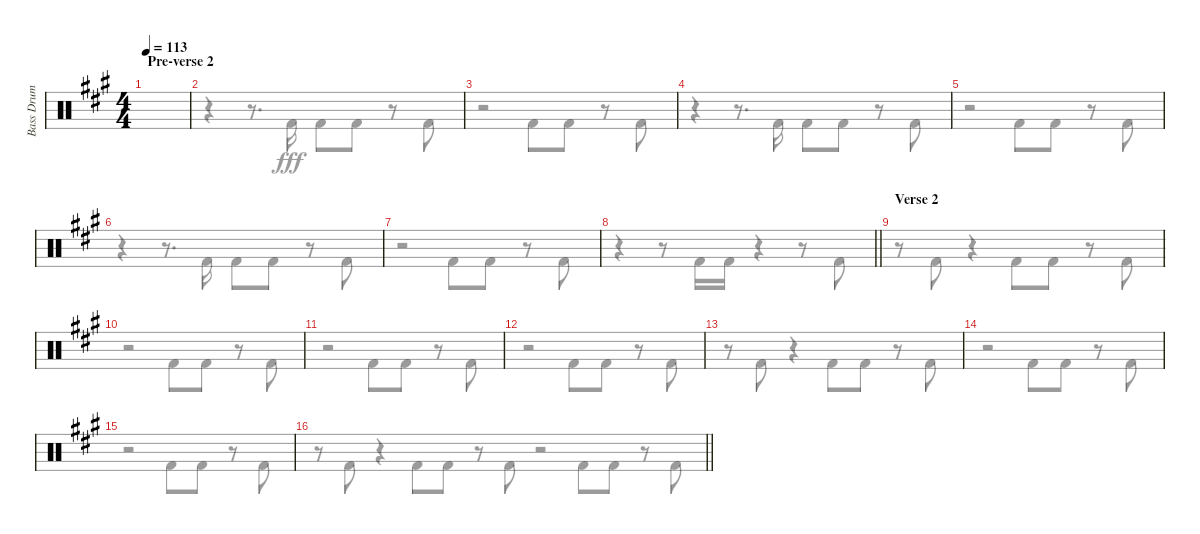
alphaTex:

\track ("Bass Drum" "Bass Drum") {instrument percussion}
\staff {score}
\articulation defaults
\voice
\ts (4 4)
\section ("" "Pre-verse 2")
\tempo 113
\clef neutral
\ks f#minor
|
|
|
|
|
|
|
\barLineRight lightlight
|
\section ("" "Verse 2")
|
|
|
|
|
|
|
\barLineRight lightlight
\voice
\clef neutral
\ks f#minor
r.8{dy fff} "Kick (hit) 2".8 r.4 "Kick (hit) 2".8 "Kick (hit) 2".8 r.8 "Kick (hit) 2".8 |
r.4 r.8{d} "Kick (hit) 2".16 "Kick (hit) 2".8 "Kick (hit) 2".8 r.8 "Kick (hit) 2".8 |
r.2 "Kick (hit) 2".8 "Kick (hit) 2".8 r.8 "Kick (hit) 2".8 |
r.4 r.8{d} "Kick (hit) 2".16 "Kick (hit) 2".8 "Kick (hit) 2".8 r.8 "Kick (hit) 2".8 |
r.2 "Kick (hit) 2".8 "Kick (hit) 2".8 r.8 "Kick (hit) 2".8 |
r.4 r.8{d} "Kick (hit) 2".16 "Kick (hit) 2".8 "Kick (hit) 2".8 r.8 "Kick (hit) 2".8 |
r.2 "Kick (hit) 2".8 "Kick (hit) 2".8 r.8 "Kick (hit) 2".8 |
\barLineRight lightlight
r.4 r.8 "Kick (hit) 2".16 "Kick (hit) 2".16 r.4 r.8 "Kick (hit) 2".8 |
r.8 "Kick (hit) 2".8 r.4 "Kick (hit) 2".8 "Kick (hit) 2".8 r.8 "Kick (hit) 2".8 |
r.2 "Kick (hit) 2".8 "Kick (hit) 2".8 r.8 "Kick (hit) 2".8 |
r.2 "Kick (hit) 2".8 "Kick (hit) 2".8 r.8 "Kick (hit) 2".8 |
r.2 "Kick (hit) 2".8 "Kick (hit) 2".8 r.8 "Kick (hit) 2".8 |
r.8 "Kick (hit) 2".8 r.4 "Kick (hit) 2".8 "Kick (hit) 2".8 r.8 "Kick (hit) 2".8 |
r.2 "Kick (hit) 2".8 "Kick (hit) 2".8 r.8 "Kick (hit) 2".8 |
r.2 "Kick (hit) 2".8 "Kick (hit) 2".8 r.8 "Kick (hit) 2".8 |
\barLineRight lightlight
r.2 "Kick (hit) 2".8 "Kick (hit) 2".8 r.8 "Kick (hit) 2".8
